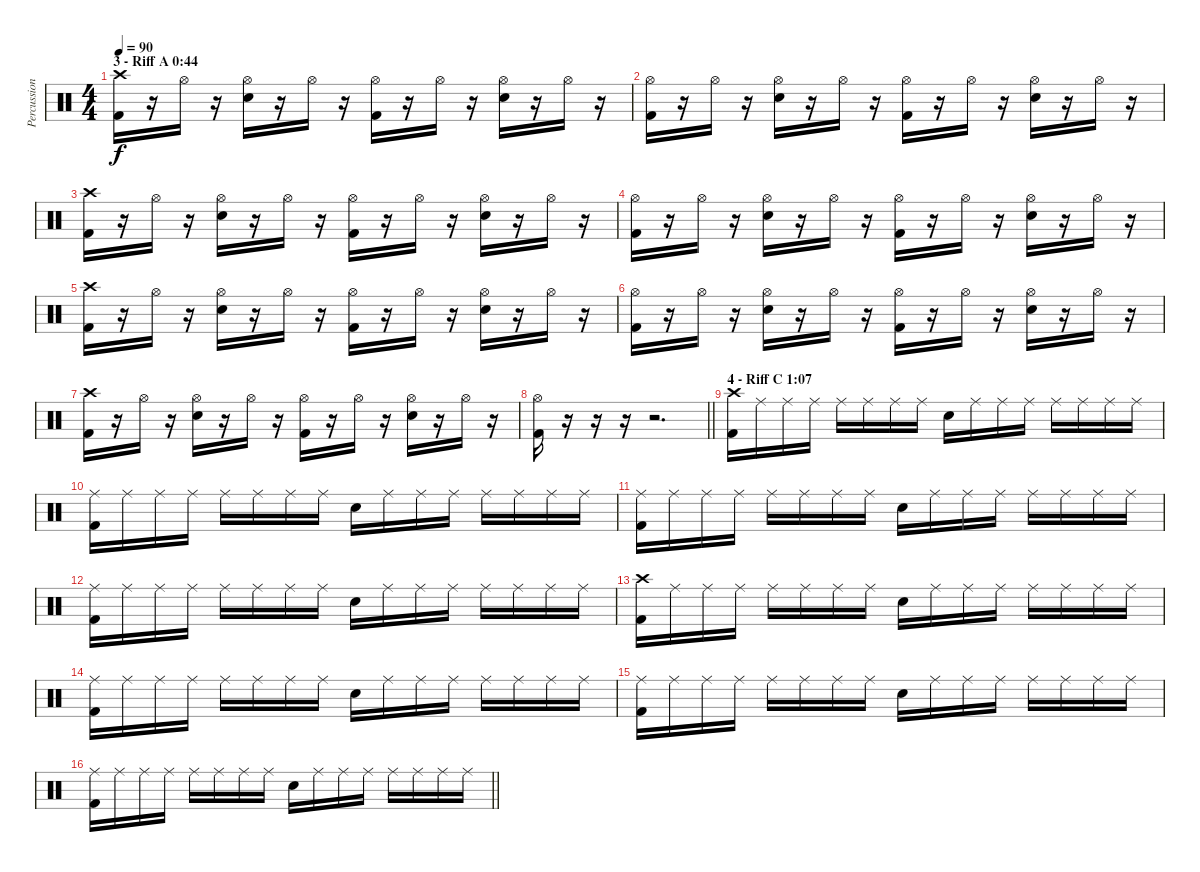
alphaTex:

\track ("Percussion" "Percussion") {instrument percussion}
\staff {score}
\articulation defaults
\ts (4 4)
\section ("" "3 - Riff A 0:44")
\tempo 90
\clef neutral
\ks c
("Crash high (hit)" "Kick (hit) 2").16{dy f} r.16 "Hi-Hat (open)".16 r.16 ("Hi-Hat (open)" "Snare (hit) 2").16 r.16 "Hi-Hat (open)".16 r.16 ("Hi-Hat (open)" "Kick (hit) 2").16 r.16 "Hi-Hat (open)".16 r.16 ("Hi-Hat (open)" "Snare (hit) 2").16 r.16 "Hi-Hat (open)".16 r.16 |
("Hi-Hat (open)" "Kick (hit) 2").16 r.16 "Hi-Hat (open)".16 r.16 ("Hi-Hat (open)" "Snare (hit) 2").16 r.16 "Hi-Hat (open)".16 r.16 ("Hi-Hat (open)" "Kick (hit) 2").16 r.16 "Hi-Hat (open)".16 r.16 ("Hi-Hat (open)" "Snare (hit) 2").16 r.16 "Hi-Hat (open)".16 r.16 |
("Crash high (hit)" "Kick (hit) 2").16 r.16 "Hi-Hat (open)".16 r.16 ("Hi-Hat (open)" "Snare (hit) 2").16 r.16 "Hi-Hat (open)".16 r.16 ("Hi-Hat (open)" "Kick (hit) 2").16 r.16 "Hi-Hat (open)".16 r.16 ("Hi-Hat (open)" "Snare (hit) 2").16 r.16 "Hi-Hat (open)".16 r.16 |
("Hi-Hat (open)" "Kick (hit) 2").16 r.16 "Hi-Hat (open)".16 r.16 ("Hi-Hat (open)" "Snare (hit) 2").16 r.16 "Hi-Hat (open)".16 r.16 ("Hi-Hat (open)" "Kick (hit) 2").16 r.16 "Hi-Hat (open)".16 r.16 ("Hi-Hat (open)" "Snare (hit) 2").16 r.16 "Hi-Hat (open)".16 r.16 |
("Crash high (hit)" "Kick (hit) 2").16 r.16 "Hi-Hat (open)".16 r.16 ("Hi-Hat (open)" "Snare (hit) 2").16 r.16 "Hi-Hat (open)".16 r.16 ("Hi-Hat (open)" "Kick (hit) 2").16 r.16 "Hi-Hat (open)".16 r.16 ("Hi-Hat (open)" "Snare (hit) 2").16 r.16 "Hi-Hat (open)".16 r.16 |
("Hi-Hat (open)" "Kick (hit) 2").16 r.16 "Hi-Hat (open)".16 r.16 ("Hi-Hat (open)" "Snare (hit) 2").16 r.16 "Hi-Hat (open)".16 r.16 ("Hi-Hat (open)" "Kick (hit) 2").16 r.16 "Hi-Hat (open)".16 r.16 ("Hi-Hat (open)" "Snare (hit) 2").16 r.16 "Hi-Hat (open)".16 r.16 |
("Crash high (hit)" "Kick (hit) 2").16 r.16 "Hi-Hat (open)".16 r.16 ("Hi-Hat (open)" "Snare (hit) 2").16 r.16 "Hi-Hat (open)".16 r.16 ("Hi-Hat (open)" "Kick (hit) 2").16 r.16 "Hi-Hat (open)".16 r.16 ("Hi-Hat (open)" "Snare (hit) 2").16 r.16 "Hi-Hat (open)".16 r.16 |
\barLineRight lightlight
("Hi-Hat (open)" "Kick (hit) 2").16 r.16 r.16 r.16 r.2{d} |
\section ("" "4 - Riff C 1:07")
("Crash high (hit)" "Kick (hit) 2").16 "Ride (middle)".16 "Ride (middle)".16 "Ride (middle)".16 "Ride (middle)".16 "Ride (middle)".16 "Ride (middle)".16 "Ride (middle)".16 "Snare (hit) 2".16 "Ride (middle)".16 "Ride (middle)".16 "Ride (middle)".16 "Ride (middle)".16 "Ride (middle)".16 "Ride (middle)".16 "Ride (middle)".16 |
("Ride (middle)" "Kick (hit) 2").16 "Ride (middle)".16 "Ride (middle)".16 "Ride (middle)".16 "Ride (middle)".16 "Ride (middle)".16 "Ride (middle)".16 "Ride (middle)".16 "Snare (hit) 2".16 "Ride (middle)".16 "Ride (middle)".16 "Ride (middle)".16 "Ride (middle)".16 "Ride (middle)".16 "Ride (middle)".16 "Ride (middle)".16 |
("Ride (middle)" "Kick (hit) 2").16 "Ride (middle)".16 "Ride (middle)".16 "Ride (middle)".16 "Ride (middle)".16 "Ride (middle)".16 "Ride (middle)".16 "Ride (middle)".16 "Snare (hit) 2".16 "Ride (middle)".16 "Ride (middle)".16 "Ride (middle)".16 "Ride (middle)".16 "Ride (middle)".16 "Ride (middle)".16 "Ride (middle)".16 |
("Ride (middle)" "Kick (hit) 2").16 "Ride (middle)".16 "Ride (middle)".16 "Ride (middle)".16 "Ride (middle)".16 "Ride (middle)".16 "Ride (middle)".16 "Ride (middle)".16 "Snare (hit) 2".16 "Ride (middle)".16 "Ride (middle)".16 "Ride (middle)".16 "Ride (middle)".16 "Ride (middle)".16 "Ride (middle)".16 "Ride (middle)".16 |
("Crash high (hit)" "Kick (hit) 2").16 "Ride (middle)".16 "Ride (middle)".16 "Ride (middle)".16 "Ride (middle)".16 "Ride (middle)".16 "Ride (middle)".16 "Ride (middle)".16 "Snare (hit) 2".16 "Ride (middle)".16 "Ride (middle)".16 "Ride (middle)".16 "Ride (middle)".16 "Ride (middle)".16 "Ride (middle)".16 "Ride (middle)".16 |
("Ride (middle)" "Kick (hit) 2").16 "Ride (middle)".16 "Ride (middle)".16 "Ride (middle)".16 "Ride (middle)".16 "Ride (middle)".16 "Ride (middle)".16 "Ride (middle)".16 "Snare (hit) 2".16 "Ride (middle)".16 "Ride (middle)".16 "Ride (middle)".16 "Ride (middle)".16 "Ride (middle)".16 "Ride (middle)".16 "Ride (middle)".16 |
("Ride (middle)" "Kick (hit) 2").16 "Ride (middle)".16 "Ride (middle)".16 "Ride (middle)".16 "Ride (middle)".16 "Ride (middle)".16 "Ride (middle)".16 "Ride (middle)".16 "Snare (hit) 2".16 "Ride (middle)".16 "Ride (middle)".16 "Ride (middle)".16 "Ride (middle)".16 "Ride (middle)".16 "Ride (middle)".16 "Ride (middle)".16 |
\barLineRight lightlight
("Ride (middle)" "Kick (hit) 2").16 "Ride (middle)".16 "Ride (middle)".16 "Ride (middle)".16 "Ride (middle)".16 "Ride (middle)".16 "Ride (middle)".16 "Ride (middle)".16 "Snare (hit) 2".16 "Ride (middle)".16 "Ride (middle)".16 "Ride (middle)".16 "Ride (middle)".16 "Ride (middle)".16 "Ride (middle)".16 "Ride (middle)".16
